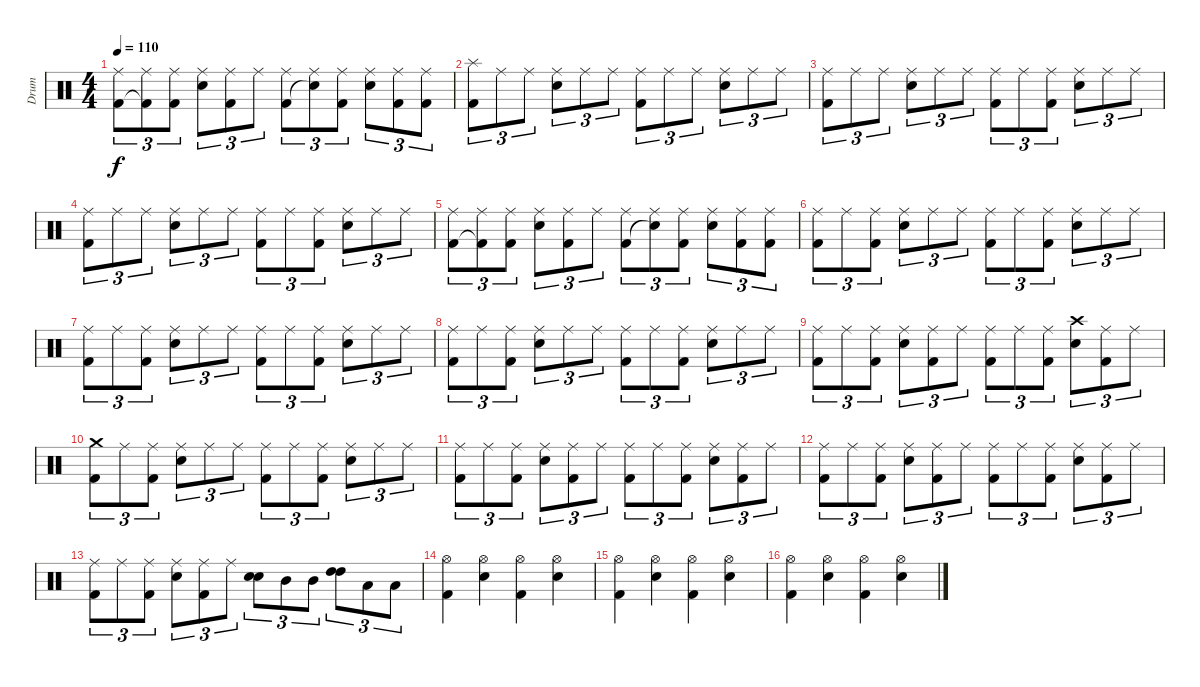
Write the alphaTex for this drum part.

\track ("Drum" "Drum") {instrument percussion}
\staff {score}
\articulation defaults
\ts (4 4)
\tempo 110
\clef neutral
\ks c
("Ride (middle)" "Kick (hit) 2").8{tu (3 2) dy f} ("Ride (middle)" "Kick (hit) 2"{t}).8{tu (3 2)} ("Ride (middle)" "Kick (hit) 2").8{tu (3 2)} ("Ride (middle)" "Electric Snare (hit)").8{tu (3 2)} ("Ride (middle)" "Kick (hit) 2").8{tu (3 2)} "Ride (middle)".8{tu (3 2)} ("Ride (middle)" "Kick (hit) 2").8{tu (3 2)} ("Ride (middle)" "Snare (hit)"{t}).8{tu (3 2)} ("Ride (middle)" "Kick (hit) 2").8{tu (3 2)} ("Ride (middle)" "Electric Snare (hit)").8{tu (3 2)} ("Ride (middle)" "Kick (hit) 2").8{tu (3 2)} ("Ride (middle)" "Kick (hit) 2").8{tu (3 2)} |
("Splash (hit)" "Kick (hit) 2").8{tu (3 2)} "Ride (middle)".8{tu (3 2)} "Ride (middle)".8{tu (3 2)} ("Ride (middle)" "Electric Snare (hit)").8{tu (3 2)} "Ride (middle)".8{tu (3 2)} "Ride (middle)".8{tu (3 2)} ("Ride (middle)" "Kick (hit) 2").8{tu (3 2)} "Ride (middle)".8{tu (3 2)} "Ride (middle)".8{tu (3 2)} ("Ride (middle)" "Electric Snare (hit)").8{tu (3 2)} "Ride (middle)".8{tu (3 2)} "Ride (middle)".8{tu (3 2)} |
("Ride (middle)" "Kick (hit) 2").8{tu (3 2)} "Ride (middle)".8{tu (3 2)} "Ride (middle)".8{tu (3 2)} ("Ride (middle)" "Electric Snare (hit)").8{tu (3 2)} "Ride (middle)".8{tu (3 2)} "Ride (middle)".8{tu (3 2)} ("Ride (middle)" "Kick (hit) 2").8{tu (3 2)} "Ride (middle)".8{tu (3 2)} ("Ride (middle)" "Kick (hit) 2").8{tu (3 2)} ("Ride (middle)" "Electric Snare (hit)").8{tu (3 2)} "Ride (middle)".8{tu (3 2)} "Ride (middle)".8{tu (3 2)} |
("Ride (middle)" "Kick (hit) 2").8{tu (3 2)} "Ride (middle)".8{tu (3 2)} "Ride (middle)".8{tu (3 2)} ("Ride (middle)" "Electric Snare (hit)").8{tu (3 2)} "Ride (middle)".8{tu (3 2)} "Ride (middle)".8{tu (3 2)} ("Ride (middle)" "Kick (hit) 2").8{tu (3 2)} "Ride (middle)".8{tu (3 2)} ("Ride (middle)" "Kick (hit) 2").8{tu (3 2)} ("Ride (middle)" "Electric Snare (hit)").8{tu (3 2)} "Ride (middle)".8{tu (3 2)} "Ride (middle)".8{tu (3 2)} |
("Ride (middle)" "Kick (hit) 2").8{tu (3 2)} ("Ride (middle)" "Kick (hit) 2"{t}).8{tu (3 2)} ("Ride (middle)" "Kick (hit) 2").8{tu (3 2)} ("Ride (middle)" "Electric Snare (hit)").8{tu (3 2)} ("Ride (middle)" "Kick (hit) 2").8{tu (3 2)} "Ride (middle)".8{tu (3 2)} ("Ride (middle)" "Kick (hit) 2").8{tu (3 2)} ("Ride (middle)" "Snare (hit)"{t}).8{tu (3 2)} ("Ride (middle)" "Kick (hit) 2").8{tu (3 2)} ("Ride (middle)" "Electric Snare (hit)").8{tu (3 2)} ("Ride (middle)" "Kick (hit) 2").8{tu (3 2)} ("Ride (middle)" "Kick (hit) 2").8{tu (3 2)} |
("Ride (middle)" "Kick (hit) 2").8{tu (3 2)} "Ride (middle)".8{tu (3 2)} ("Ride (middle)" "Kick (hit) 2").8{tu (3 2)} ("Ride (middle)" "Electric Snare (hit)").8{tu (3 2)} "Ride (middle)".8{tu (3 2)} "Ride (middle)".8{tu (3 2)} ("Ride (middle)" "Kick (hit) 2").8{tu (3 2)} "Ride (middle)".8{tu (3 2)} ("Ride (middle)" "Kick (hit) 2").8{tu (3 2)} ("Ride (middle)" "Electric Snare (hit)").8{tu (3 2)} "Ride (middle)".8{tu (3 2)} "Ride (middle)".8{tu (3 2)} |
("Ride (middle)" "Kick (hit) 2").8{tu (3 2)} "Ride (middle)".8{tu (3 2)} ("Ride (middle)" "Kick (hit) 2").8{tu (3 2)} ("Ride (middle)" "Electric Snare (hit)").8{tu (3 2)} "Ride (middle)".8{tu (3 2)} "Ride (middle)".8{tu (3 2)} ("Ride (middle)" "Kick (hit) 2").8{tu (3 2)} "Ride (middle)".8{tu (3 2)} ("Ride (middle)" "Kick (hit) 2").8{tu (3 2)} ("Ride (middle)" "Electric Snare (hit)").8{tu (3 2)} "Ride (middle)".8{tu (3 2)} "Ride (middle)".8{tu (3 2)} |
("Ride (middle)" "Kick (hit) 2").8{tu (3 2)} "Ride (middle)".8{tu (3 2)} ("Ride (middle)" "Kick (hit) 2").8{tu (3 2)} ("Ride (middle)" "Electric Snare (hit)").8{tu (3 2)} "Ride (middle)".8{tu (3 2)} "Ride (middle)".8{tu (3 2)} ("Ride (middle)" "Kick (hit) 2").8{tu (3 2)} "Ride (middle)".8{tu (3 2)} ("Ride (middle)" "Kick (hit) 2").8{tu (3 2)} ("Ride (middle)" "Electric Snare (hit)").8{tu (3 2)} "Ride (middle)".8{tu (3 2)} "Ride (middle)".8{tu (3 2)} |
("Ride (middle)" "Kick (hit) 2").8{tu (3 2)} "Ride (middle)".8{tu (3 2)} ("Ride (middle)" "Kick (hit) 2").8{tu (3 2)} ("Ride (middle)" "Electric Snare (hit)").8{tu (3 2)} ("Ride (middle)" "Kick (hit) 2").8{tu (3 2)} "Ride (middle)".8{tu (3 2)} ("Ride (middle)" "Kick (hit) 2").8{tu (3 2)} "Ride (middle)".8{tu (3 2)} ("Ride (middle)" "Kick (hit) 2").8{tu (3 2)} ("Crash high (hit)" "Electric Snare (hit)").8{tu (3 2)} ("Ride (middle)" "Kick (hit) 2").8{tu (3 2)} "Ride (middle)".8{tu (3 2)} |
("Crash medium (hit)" "Kick (hit) 2").8{tu (3 2)} "Ride (middle)".8{tu (3 2)} ("Ride (middle)" "Kick (hit) 2").8{tu (3 2)} ("Ride (middle)" "Electric Snare (hit)").8{tu (3 2)} "Ride (middle)".8{tu (3 2)} "Ride (middle)".8{tu (3 2)} ("Ride (middle)" "Kick (hit) 2").8{tu (3 2)} "Ride (middle)".8{tu (3 2)} ("Ride (middle)" "Kick (hit) 2").8{tu (3 2)} ("Ride (middle)" "Electric Snare (hit)").8{tu (3 2)} "Ride (middle)".8{tu (3 2)} "Ride (middle)".8{tu (3 2)} |
("Ride (middle)" "Kick (hit) 2").8{tu (3 2)} "Ride (middle)".8{tu (3 2)} ("Ride (middle)" "Kick (hit) 2").8{tu (3 2)} ("Ride (middle)" "Electric Snare (hit)").8{tu (3 2)} ("Ride (middle)" "Kick (hit) 2").8{tu (3 2)} "Ride (middle)".8{tu (3 2)} ("Ride (middle)" "Kick (hit) 2").8{tu (3 2)} "Ride (middle)".8{tu (3 2)} ("Ride (middle)" "Kick (hit) 2").8{tu (3 2)} ("Ride (middle)" "Electric Snare (hit)").8{tu (3 2)} ("Ride (middle)" "Kick (hit) 2").8{tu (3 2)} "Ride (middle)".8{tu (3 2)} |
("Ride (middle)" "Kick (hit) 2").8{tu (3 2)} "Ride (middle)".8{tu (3 2)} ("Ride (middle)" "Kick (hit) 2").8{tu (3 2)} ("Ride (middle)" "Electric Snare (hit)").8{tu (3 2)} ("Ride (middle)" "Kick (hit) 2").8{tu (3 2)} "Ride (middle)".8{tu (3 2)} ("Ride (middle)" "Kick (hit) 2").8{tu (3 2)} "Ride (middle)".8{tu (3 2)} ("Ride (middle)" "Kick (hit) 2").8{tu (3 2)} ("Ride (middle)" "Electric Snare (hit)").8{tu (3 2)} ("Ride (middle)" "Kick (hit) 2").8{tu (3 2)} "Ride (middle)".8{tu (3 2)} |
("Ride (middle)" "Kick (hit) 2").8{tu (3 2)} "Ride (middle)".8{tu (3 2)} ("Ride (middle)" "Kick (hit) 2").8{tu (3 2)} ("Ride (middle)" "Electric Snare (hit)").8{tu (3 2)} ("Ride (middle)" "Kick (hit) 2").8{tu (3 2)} "Ride (middle)".8{tu (3 2)} ("Electric Snare (hit)" "Electric Snare (hit)").8{tu (3 2) bd 120} "Mid Tom (hit)".8{tu (3 2)} "Mid Tom (hit)".8{tu (3 2)} ("High Tom (hit)" "High Tom (hit)").8{tu (3 2) bd 120} "Low Tom (hit)".8{tu (3 2)} "Low Tom (hit)".8{tu (3 2)} |
("Hi-Hat (open)" "Kick (hit) 2").4 ("Hi-Hat (open)" "Electric Snare (hit)").4 ("Hi-Hat (open)" "Kick (hit) 2").4 ("Hi-Hat (open)" "Electric Snare (hit)").4 |
("Hi-Hat (open)" "Kick (hit) 2").4 ("Hi-Hat (open)" "Electric Snare (hit)").4 ("Hi-Hat (open)" "Kick (hit) 2").4 ("Hi-Hat (open)" "Electric Snare (hit)").4 |
("Hi-Hat (open)" "Kick (hit) 2").4 ("Hi-Hat (open)" "Electric Snare (hit)").4 ("Hi-Hat (open)" "Kick (hit) 2").4 ("Hi-Hat (open)" "Electric Snare (hit)").4
